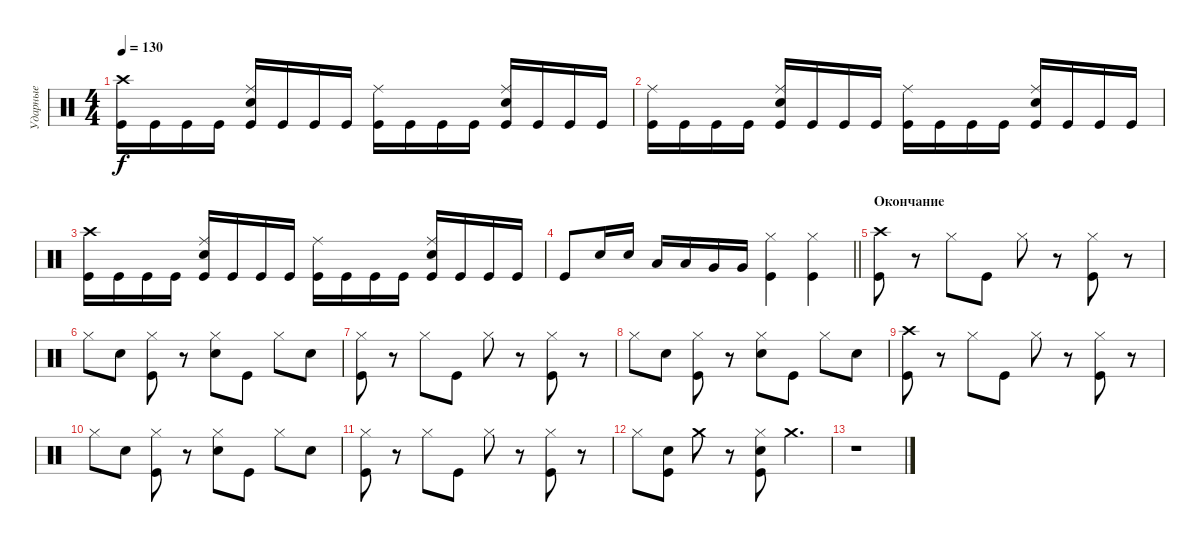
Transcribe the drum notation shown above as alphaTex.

\track ("Ударные" "Ударные") {instrument percussion}
\staff {score}
\articulation defaults
\ts (4 4)
\tempo 130
\clef neutral
\ks c
("Crash high (hit)" "Kick (hit)").16{dy f} "Kick (hit)".16 "Kick (hit)".16 "Kick (hit)".16 ("Ride (middle)" "Snare (hit) 2" "Kick (hit)").16 "Kick (hit)".16 "Kick (hit)".16 "Kick (hit)".16 ("Ride (middle)" "Kick (hit)").16 "Kick (hit)".16 "Kick (hit)".16 "Kick (hit)".16 ("Ride (middle)" "Snare (hit) 2" "Kick (hit)").16 "Kick (hit)".16 "Kick (hit)".16 "Kick (hit)".16 |
("Ride (middle)" "Kick (hit)").16 "Kick (hit)".16 "Kick (hit)".16 "Kick (hit)".16 ("Ride (middle)" "Snare (hit) 2" "Kick (hit)").16 "Kick (hit)".16 "Kick (hit)".16 "Kick (hit)".16 ("Ride (middle)" "Kick (hit)").16 "Kick (hit)".16 "Kick (hit)".16 "Kick (hit)".16 ("Ride (middle)" "Snare (hit) 2" "Kick (hit)").16 "Kick (hit)".16 "Kick (hit)".16 "Kick (hit)".16 |
("Crash high (hit)" "Kick (hit)").16 "Kick (hit)".16 "Kick (hit)".16 "Kick (hit)".16 ("Ride (middle)" "Snare (hit) 2" "Kick (hit)").16 "Kick (hit)".16 "Kick (hit)".16 "Kick (hit)".16 ("Ride (middle)" "Kick (hit)").16 "Kick (hit)".16 "Kick (hit)".16 "Kick (hit)".16 ("Ride (middle)" "Snare (hit) 2" "Kick (hit)").16 "Kick (hit)".16 "Kick (hit)".16 "Kick (hit)".16 |
\barLineRight lightlight "Kick (hit)".8 "Snare (hit) 2".16 "Snare (hit) 2".16 "Low Tom (hit)".16 "Low Tom (hit)".16 "Very Low Tom (hit)".16 "Very Low Tom (hit)".16
("Hi-Hat (closed)" "Kick (hit)").4 ("Hi-Hat (closed)" "Kick (hit)").4 |
\section ("" "Окончание")
("Crash high (hit)" "Kick (hit)").8 r.8 "Hi-Hat (closed)".8 "Kick (hit)".8 "Hi-Hat (closed)".8 r.8 ("Hi-Hat (closed)" "Kick (hit)").8 r.8 |
"Hi-Hat (closed)".8 "Snare (hit) 2".8 ("Hi-Hat (closed)" "Kick (hit)").8 r.8 ("Hi-Hat (closed)" "Snare (hit) 2").8 "Kick (hit)".8 "Hi-Hat (closed)".8 "Snare (hit) 2".8 |
("Hi-Hat (closed)" "Kick (hit)").8 r.8 "Hi-Hat (closed)".8 "Kick (hit)".8 "Hi-Hat (closed)".8 r.8 ("Hi-Hat (closed)" "Kick (hit)").8 r.8 |
"Hi-Hat (closed)".8 "Snare (hit) 2".8 ("Hi-Hat (closed)" "Kick (hit)").8 r.8 ("Hi-Hat (closed)" "Snare (hit) 2").8 "Kick (hit)".8 "Hi-Hat (closed)".8 "Snare (hit) 2".8 |
("Crash high (hit)" "Kick (hit)").8 r.8 "Hi-Hat (closed)".8 "Kick (hit)".8 "Hi-Hat (closed)".8 r.8 ("Hi-Hat (closed)" "Kick (hit)").8 r.8 |
"Hi-Hat (closed)".8 "Snare (hit) 2".8 ("Hi-Hat (closed)" "Kick (hit)").8 r.8 ("Hi-Hat (closed)" "Snare (hit) 2").8 "Kick (hit)".8 "Hi-Hat (closed)".8 "Snare (hit) 2".8 |
("Hi-Hat (closed)" "Kick (hit)").8 r.8 "Hi-Hat (closed)".8 "Kick (hit)".8 "Hi-Hat (closed)".8 r.8 ("Hi-Hat (closed)" "Kick (hit)").8 r.8 |
"Hi-Hat (closed)".8 ("Snare (hit) 2" "Kick (hit)").8 "Crash medium (hit)".8 r.8 ("Hi-Hat (closed)" "Snare (hit) 2" "Kick (hit)").8 "Crash medium (hit)".4{d} |
r.1
